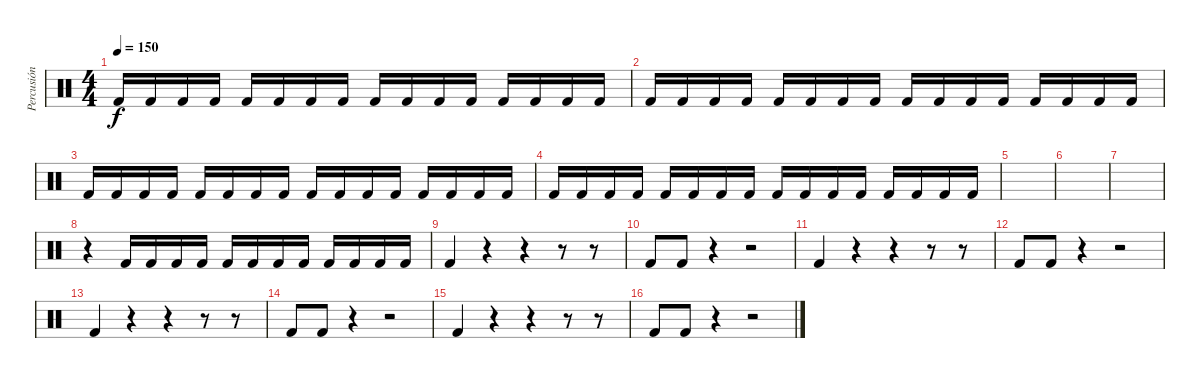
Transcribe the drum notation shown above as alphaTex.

\track ("Percusión" "Percusión") {instrument percussion}
\staff {score}
\articulation defaults
\ts (4 4)
\tempo 150
\clef neutral
\ks c "Kick (hit) 2".16{dy f} "Kick (hit) 2".16 "Kick (hit) 2".16 "Kick (hit) 2".16 "Kick (hit) 2".16 "Kick (hit) 2".16 "Kick (hit) 2".16 "Kick (hit) 2".16 "Kick (hit) 2".16 "Kick (hit) 2".16 "Kick (hit) 2".16 "Kick (hit) 2".16 "Kick (hit) 2".16 "Kick (hit) 2".16 "Kick (hit) 2".16 "Kick (hit) 2".16
|
"Kick (hit) 2".16 "Kick (hit) 2".16 "Kick (hit) 2".16 "Kick (hit) 2".16 "Kick (hit) 2".16 "Kick (hit) 2".16 "Kick (hit) 2".16 "Kick (hit) 2".16 "Kick (hit) 2".16 "Kick (hit) 2".16 "Kick (hit) 2".16 "Kick (hit) 2".16 "Kick (hit) 2".16 "Kick (hit) 2".16 "Kick (hit) 2".16 "Kick (hit) 2".16 |
"Kick (hit) 2".16 "Kick (hit) 2".16 "Kick (hit) 2".16 "Kick (hit) 2".16 "Kick (hit) 2".16 "Kick (hit) 2".16 "Kick (hit) 2".16 "Kick (hit) 2".16 "Kick (hit) 2".16 "Kick (hit) 2".16 "Kick (hit) 2".16 "Kick (hit) 2".16 "Kick (hit) 2".16 "Kick (hit) 2".16 "Kick (hit) 2".16 "Kick (hit) 2".16 |
"Kick (hit) 2".16 "Kick (hit) 2".16 "Kick (hit) 2".16 "Kick (hit) 2".16 "Kick (hit) 2".16 "Kick (hit) 2".16 "Kick (hit) 2".16 "Kick (hit) 2".16 "Kick (hit) 2".16 "Kick (hit) 2".16 "Kick (hit) 2".16 "Kick (hit) 2".16 "Kick (hit) 2".16 "Kick (hit) 2".16 "Kick (hit) 2".16 "Kick (hit) 2".16 |
|
|
|
r.4 "Kick (hit) 2".16 "Kick (hit) 2".16 "Kick (hit) 2".16 "Kick (hit) 2".16 "Kick (hit) 2".16 "Kick (hit) 2".16 "Kick (hit) 2".16 "Kick (hit) 2".16 "Kick (hit) 2".16 "Kick (hit) 2".16 "Kick (hit) 2".16 "Kick (hit) 2".16 |
"Kick (hit) 2".4 r.4 r.4 r.8 r.8 |
"Kick (hit) 2".8 "Kick (hit) 2".8 r.4 r.2 |
"Kick (hit) 2".4 r.4 r.4 r.8 r.8 |
"Kick (hit) 2".8 "Kick (hit) 2".8 r.4 r.2 |
"Kick (hit) 2".4 r.4 r.4 r.8 r.8 |
"Kick (hit) 2".8 "Kick (hit) 2".8 r.4 r.2 |
"Kick (hit) 2".4 r.4 r.4 r.8 r.8 |
"Kick (hit) 2".8 "Kick (hit) 2".8 r.4 r.2
